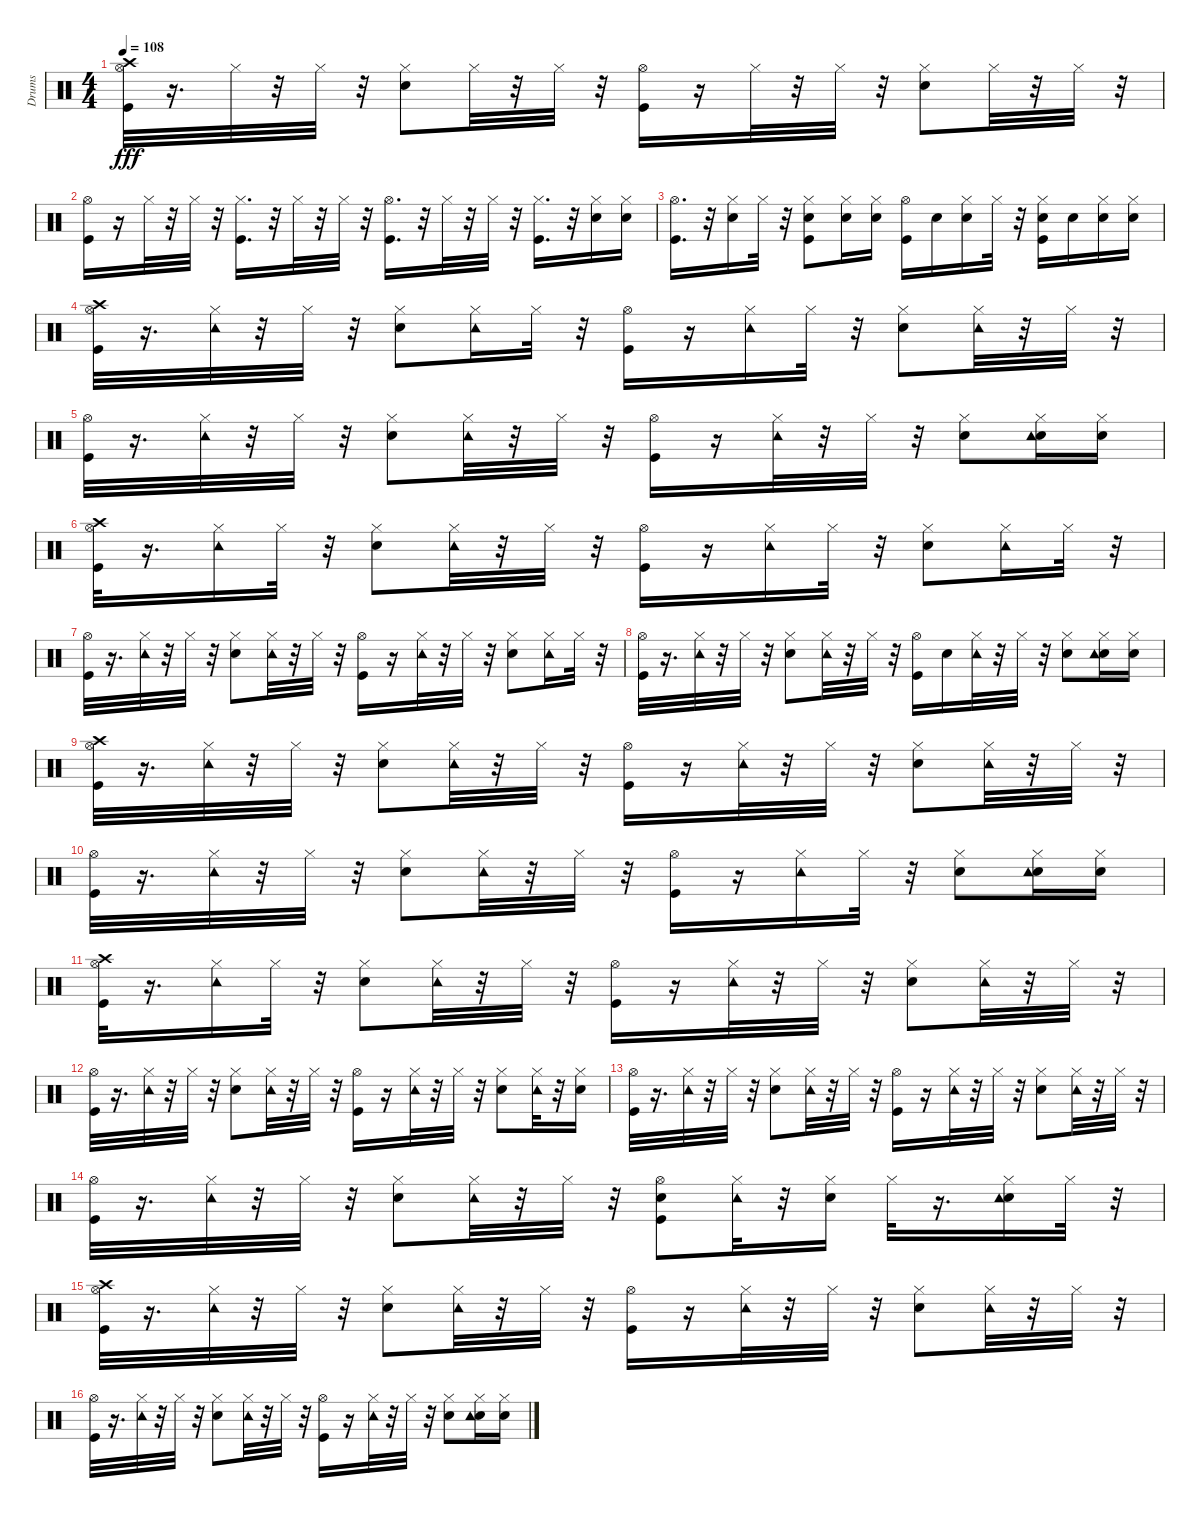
\track ("Drums               " "Drums     ") {instrument percussion}
\staff {score}
\articulation defaults
\ts (4 4)
\tempo 108
\clef neutral
\ks c
("Kick (hit)" "Hi-Hat (open)" "Crash high (hit)").32{dy fff} r.16{d} "Hi-Hat (closed)".32 r.32 "Hi-Hat (closed)".32 r.32 ("Snare (hit) 2" "Hi-Hat (closed)").8 "Hi-Hat (closed)".32 r.32 "Hi-Hat (closed)".32 r.32 ("Kick (hit)" "Hi-Hat (open)").16 r.16 "Hi-Hat (closed)".32 r.32 "Hi-Hat (closed)".32 r.32 ("Snare (hit) 2" "Hi-Hat (closed)").8 "Hi-Hat (closed)".32 r.32 "Hi-Hat (closed)".32 r.32 |
("Kick (hit)" "Hi-Hat (open)").16 r.16 "Hi-Hat (closed)".32 r.32 "Hi-Hat (closed)".32 r.32 ("Kick (hit)" "Hi-Hat (closed)").16{d} r.32 "Hi-Hat (closed)".32 r.32 "Hi-Hat (closed)".32 r.32 ("Kick (hit)" "Hi-Hat (open)").16{d} r.32 "Hi-Hat (closed)".32 r.32 "Hi-Hat (closed)".32 r.32 ("Kick (hit)" "Hi-Hat (closed)").16{d} r.32 ("Snare (hit) 2" "Hi-Hat (closed)").16 ("Snare (hit) 2" "Hi-Hat (closed)").16 |
("Kick (hit)" "Hi-Hat (open)").16{d} r.32 ("Snare (hit) 2" "Hi-Hat (closed)").16 "Hi-Hat (closed)".32 r.32 ("Kick (hit)" "Snare (hit) 2" "Hi-Hat (closed)").8 ("Snare (hit) 2" "Hi-Hat (closed)").16 ("Snare (hit) 2" "Hi-Hat (closed)").16 ("Kick (hit)" "Hi-Hat (open)").16 "Snare (hit) 2".16 ("Snare (hit) 2" "Hi-Hat (closed)").16 "Hi-Hat (closed)".32 r.32 ("Kick (hit)" "Snare (hit) 2" "Hi-Hat (closed)").16 "Snare (hit) 2".16 ("Snare (hit) 2" "Hi-Hat (closed)").16 ("Snare (hit) 2" "Hi-Hat (closed)").16 |
("Kick (hit)" "Hi-Hat (open)" "Crash high (hit)").32 r.16{d} ("Hi-Hat (closed)" "Tambourine (hit)").32 r.32 "Hi-Hat (closed)".32 r.32 ("Snare (hit) 2" "Hi-Hat (closed)").8 ("Hi-Hat (closed)" "Tambourine (hit)").16 "Hi-Hat (closed)".32 r.32 ("Kick (hit)" "Hi-Hat (open)").16 r.16 ("Hi-Hat (closed)" "Tambourine (hit)").16 "Hi-Hat (closed)".32 r.32 ("Snare (hit) 2" "Hi-Hat (closed)").8 ("Hi-Hat (closed)" "Tambourine (hit)").32 r.32 "Hi-Hat (closed)".32 r.32 |
("Kick (hit)" "Hi-Hat (open)").32 r.16{d} ("Hi-Hat (closed)" "Tambourine (hit)").32 r.32 "Hi-Hat (closed)".32 r.32 ("Snare (hit) 2" "Hi-Hat (closed)").8 ("Hi-Hat (closed)" "Tambourine (hit)").32 r.32 "Hi-Hat (closed)".32 r.32 ("Kick (hit)" "Hi-Hat (open)").16 r.16 ("Hi-Hat (closed)" "Tambourine (hit)").32 r.32 "Hi-Hat (closed)".32 r.32 ("Snare (hit) 2" "Hi-Hat (closed)").8 ("Snare (hit) 2" "Hi-Hat (closed)" "Tambourine (hit)").16 ("Snare (hit) 2" "Hi-Hat (closed)").16 |
("Kick (hit)" "Hi-Hat (open)" "Crash high (hit)").32 r.16{d} ("Hi-Hat (closed)" "Tambourine (hit)").16 "Hi-Hat (closed)".32 r.32 ("Snare (hit) 2" "Hi-Hat (closed)").8 ("Hi-Hat (closed)" "Tambourine (hit)").32 r.32 "Hi-Hat (closed)".32 r.32 ("Kick (hit)" "Hi-Hat (open)").16 r.16 ("Hi-Hat (closed)" "Tambourine (hit)").16 "Hi-Hat (closed)".32 r.32 ("Snare (hit) 2" "Hi-Hat (closed)").8 ("Hi-Hat (closed)" "Tambourine (hit)").16 "Hi-Hat (closed)".32 r.32 |
("Kick (hit)" "Hi-Hat (open)").32 r.16{d} ("Hi-Hat (closed)" "Tambourine (hit)").32 r.32 "Hi-Hat (closed)".32 r.32 ("Snare (hit) 2" "Hi-Hat (closed)").8 ("Hi-Hat (closed)" "Tambourine (hit)").32 r.32 "Hi-Hat (closed)".32 r.32 ("Kick (hit)" "Hi-Hat (open)").16 r.16 ("Hi-Hat (closed)" "Tambourine (hit)").32 r.32 "Hi-Hat (closed)".32 r.32 ("Snare (hit) 2" "Hi-Hat (closed)").8 ("Hi-Hat (closed)" "Tambourine (hit)").16 "Hi-Hat (closed)".32 r.32 |
("Kick (hit)" "Hi-Hat (open)").32 r.16{d} ("Hi-Hat (closed)" "Tambourine (hit)").32 r.32 "Hi-Hat (closed)".32 r.32 ("Snare (hit) 2" "Hi-Hat (closed)").8 ("Hi-Hat (closed)" "Tambourine (hit)").32 r.32 "Hi-Hat (closed)".32 r.32 ("Kick (hit)" "Hi-Hat (open)").16 "Snare (hit) 2".16 ("Hi-Hat (closed)" "Tambourine (hit)").32 r.32 "Hi-Hat (closed)".32 r.32 ("Snare (hit) 2" "Hi-Hat (closed)").8 ("Snare (hit) 2" "Hi-Hat (closed)" "Tambourine (hit)").16 ("Snare (hit) 2" "Hi-Hat (closed)").16 |
("Kick (hit)" "Hi-Hat (open)" "Crash high (hit)").32 r.16{d} ("Hi-Hat (closed)" "Tambourine (hit)").32 r.32 "Hi-Hat (closed)".32 r.32 ("Snare (hit) 2" "Hi-Hat (closed)").8 ("Hi-Hat (closed)" "Tambourine (hit)").32 r.32 "Hi-Hat (closed)".32 r.32 ("Kick (hit)" "Hi-Hat (open)").16 r.16 ("Hi-Hat (closed)" "Tambourine (hit)").32 r.32 "Hi-Hat (closed)".32 r.32 ("Snare (hit) 2" "Hi-Hat (closed)").8 ("Hi-Hat (closed)" "Tambourine (hit)").32 r.32 "Hi-Hat (closed)".32 r.32 |
("Kick (hit)" "Hi-Hat (open)").32 r.16{d} ("Hi-Hat (closed)" "Tambourine (hit)").32 r.32 "Hi-Hat (closed)".32 r.32 ("Snare (hit) 2" "Hi-Hat (closed)").8 ("Hi-Hat (closed)" "Tambourine (hit)").32 r.32 "Hi-Hat (closed)".32 r.32 ("Kick (hit)" "Hi-Hat (open)").16 r.16 ("Hi-Hat (closed)" "Tambourine (hit)").16 "Hi-Hat (closed)".32 r.32 ("Snare (hit) 2" "Hi-Hat (closed)").8 ("Snare (hit) 2" "Hi-Hat (closed)" "Tambourine (hit)").16 ("Snare (hit) 2" "Hi-Hat (closed)").16 |
("Kick (hit)" "Hi-Hat (open)" "Crash high (hit)").32 r.16{d} ("Hi-Hat (closed)" "Tambourine (hit)").16 "Hi-Hat (closed)".32 r.32 ("Snare (hit) 2" "Hi-Hat (closed)").8 ("Hi-Hat (closed)" "Tambourine (hit)").32 r.32 "Hi-Hat (closed)".32 r.32 ("Kick (hit)" "Hi-Hat (open)").16 r.16 ("Hi-Hat (closed)" "Tambourine (hit)").32 r.32 "Hi-Hat (closed)".32 r.32 ("Snare (hit) 2" "Hi-Hat (closed)").8 ("Hi-Hat (closed)" "Tambourine (hit)").32 r.32 "Hi-Hat (closed)".32 r.32 |
("Kick (hit)" "Hi-Hat (open)").32 r.16{d} ("Hi-Hat (closed)" "Tambourine (hit)").32 r.32 "Hi-Hat (closed)".32 r.32 ("Snare (hit) 2" "Hi-Hat (closed)").8 ("Hi-Hat (closed)" "Tambourine (hit)").32 r.32 "Hi-Hat (closed)".32 r.32 ("Kick (hit)" "Hi-Hat (open)").16 r.16 ("Hi-Hat (closed)" "Tambourine (hit)").32 r.32 "Hi-Hat (closed)".32 r.32 ("Snare (hit) 2" "Hi-Hat (closed)").8 ("Hi-Hat (closed)" "Tambourine (hit)").32 r.32 ("Snare (hit) 2" "Hi-Hat (closed)").16 |
("Kick (hit)" "Hi-Hat (open)").32 r.16{d} ("Hi-Hat (closed)" "Tambourine (hit)").32 r.32 "Hi-Hat (closed)".32 r.32 ("Snare (hit) 2" "Hi-Hat (closed)").8 ("Hi-Hat (closed)" "Tambourine (hit)").32 r.32 "Hi-Hat (closed)".32 r.32 ("Kick (hit)" "Hi-Hat (open)").16 r.16 ("Hi-Hat (closed)" "Tambourine (hit)").32 r.32 "Hi-Hat (closed)".32 r.32 ("Snare (hit) 2" "Hi-Hat (closed)").8 ("Hi-Hat (closed)" "Tambourine (hit)").32 r.32 "Hi-Hat (closed)".32 r.32 |
("Kick (hit)" "Hi-Hat (open)").32 r.16{d} ("Hi-Hat (closed)" "Tambourine (hit)").32 r.32 "Hi-Hat (closed)".32 r.32 ("Snare (hit) 2" "Hi-Hat (closed)").8 ("Hi-Hat (closed)" "Tambourine (hit)").32 r.32 "Hi-Hat (closed)".32 r.32 ("Kick (hit)" "Snare (hit) 2" "Hi-Hat (open)").8 ("Hi-Hat (closed)" "Tambourine (hit)").32 r.32 ("Snare (hit) 2" "Hi-Hat (closed)").16 "Hi-Hat (closed)".32 r.16{d} ("Snare (hit) 2" "Hi-Hat (closed)" "Tambourine (hit)").16 "Hi-Hat (closed)".32 r.32 |
("Kick (hit)" "Hi-Hat (open)" "Crash high (hit)").32 r.16{d} ("Hi-Hat (closed)" "Tambourine (hit)").32 r.32 "Hi-Hat (closed)".32 r.32 ("Snare (hit) 2" "Hi-Hat (closed)").8 ("Hi-Hat (closed)" "Tambourine (hit)").32 r.32 "Hi-Hat (closed)".32 r.32 ("Kick (hit)" "Hi-Hat (open)").16 r.16 ("Hi-Hat (closed)" "Tambourine (hit)").32 r.32 "Hi-Hat (closed)".32 r.32 ("Snare (hit) 2" "Hi-Hat (closed)").8 ("Hi-Hat (closed)" "Tambourine (hit)").32 r.32 "Hi-Hat (closed)".32 r.32 |
("Kick (hit)" "Hi-Hat (open)").32 r.16{d} ("Hi-Hat (closed)" "Tambourine (hit)").32 r.32 "Hi-Hat (closed)".32 r.32 ("Snare (hit) 2" "Hi-Hat (closed)").8 ("Hi-Hat (closed)" "Tambourine (hit)").32 r.32 "Hi-Hat (closed)".32 r.32 ("Kick (hit)" "Hi-Hat (open)").16 r.16 ("Hi-Hat (closed)" "Tambourine (hit)").32 r.32 "Hi-Hat (closed)".32 r.32 ("Snare (hit) 2" "Hi-Hat (closed)").8 ("Snare (hit) 2" "Hi-Hat (closed)" "Tambourine (hit)").16 ("Snare (hit) 2" "Hi-Hat (closed)").16
